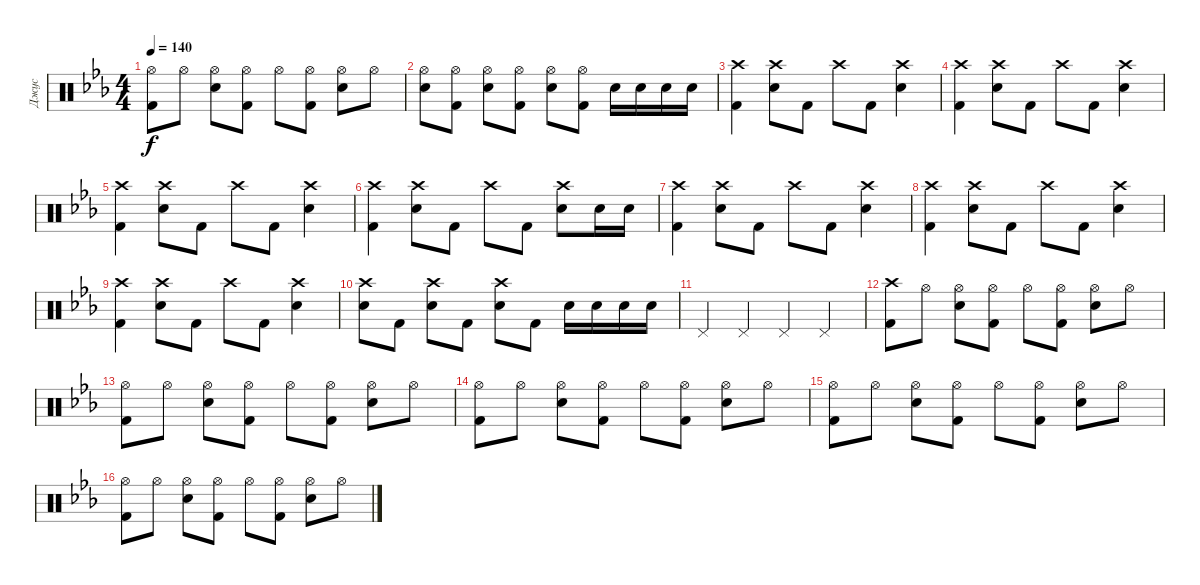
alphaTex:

\track ("Джус" "Джус") {instrument percussion}
\staff {score}
\articulation defaults
\ts (4 4)
\tempo 140
\clef neutral
\ks eb
("Hi-Hat (open)" "Kick (hit) 2").8{dy f} "Hi-Hat (open)".8 ("Hi-Hat (open)" "Electric Snare (hit)").8 ("Hi-Hat (open)" "Kick (hit) 2").8 "Hi-Hat (open)".8 ("Hi-Hat (open)" "Kick (hit) 2").8 ("Hi-Hat (open)" "Electric Snare (hit)").8 "Hi-Hat (open)".8 |
("Hi-Hat (open)" "Electric Snare (hit)").8 ("Hi-Hat (open)" "Kick (hit) 2").8 ("Hi-Hat (open)" "Electric Snare (hit)").8 ("Hi-Hat (open)" "Kick (hit) 2").8 ("Hi-Hat (open)" "Electric Snare (hit)").8 ("Hi-Hat (open)" "Kick (hit) 2").8 "Electric Snare (hit)".16 "Electric Snare (hit)".16 "Electric Snare (hit)".16 "Electric Snare (hit)".16 |
("Crash high (hit)" "Kick (hit) 2").4 ("Crash high (hit)" "Electric Snare (hit)").8 "Kick (hit) 2".8 "Crash high (hit)".8 "Kick (hit) 2".8 ("Crash high (hit)" "Electric Snare (hit)").4 |
("Crash high (hit)" "Kick (hit) 2").4 ("Crash high (hit)" "Electric Snare (hit)").8 "Kick (hit) 2".8 "Crash high (hit)".8 "Kick (hit) 2".8 ("Crash high (hit)" "Electric Snare (hit)").4 |
("Crash high (hit)" "Kick (hit) 2").4 ("Crash high (hit)" "Electric Snare (hit)").8 "Kick (hit) 2".8 "Crash high (hit)".8 "Kick (hit) 2".8 ("Crash high (hit)" "Electric Snare (hit)").4 |
("Crash high (hit)" "Kick (hit) 2").4 ("Crash high (hit)" "Electric Snare (hit)").8 "Kick (hit) 2".8 "Crash high (hit)".8 "Kick (hit) 2".8 ("Crash high (hit)" "Electric Snare (hit)").8 "Electric Snare (hit)".16 "Electric Snare (hit)".16 |
("Crash high (hit)" "Kick (hit) 2").4 ("Crash high (hit)" "Electric Snare (hit)").8 "Kick (hit) 2".8 "Crash high (hit)".8 "Kick (hit) 2".8 ("Crash high (hit)" "Electric Snare (hit)").4 |
("Crash high (hit)" "Kick (hit) 2").4 ("Crash high (hit)" "Electric Snare (hit)").8 "Kick (hit) 2".8 "Crash high (hit)".8 "Kick (hit) 2".8 ("Crash high (hit)" "Electric Snare (hit)").4 |
("Crash high (hit)" "Kick (hit) 2").4 ("Crash high (hit)" "Electric Snare (hit)").8 "Kick (hit) 2".8 "Crash high (hit)".8 "Kick (hit) 2".8 ("Crash high (hit)" "Electric Snare (hit)").4 |
("Crash high (hit)" "Electric Snare (hit)").8 "Kick (hit) 2".8 ("Crash high (hit)" "Electric Snare (hit)").8 "Kick (hit) 2".8 ("Crash high (hit)" "Electric Snare (hit)").8 "Kick (hit) 2".8 "Electric Snare (hit)".16 "Electric Snare (hit)".16 "Electric Snare (hit)".16 "Electric Snare (hit)".16 |
"Pedal Hi-Hat (hit)".4{volume 8} "Pedal Hi-Hat (hit)".4 "Pedal Hi-Hat (hit)".4 "Pedal Hi-Hat (hit)".4 |
("Crash high (hit)" "Kick (hit) 2").8{volume 16} "Hi-Hat (open)".8 ("Hi-Hat (open)" "Electric Snare (hit)").8 ("Hi-Hat (open)" "Kick (hit) 2").8 "Hi-Hat (open)".8 ("Hi-Hat (open)" "Kick (hit) 2").8 ("Hi-Hat (open)" "Electric Snare (hit)").8 "Hi-Hat (open)".8 |
("Hi-Hat (open)" "Kick (hit) 2").8 "Hi-Hat (open)".8 ("Hi-Hat (open)" "Electric Snare (hit)").8 ("Hi-Hat (open)" "Kick (hit) 2").8 "Hi-Hat (open)".8 ("Hi-Hat (open)" "Kick (hit) 2").8 ("Hi-Hat (open)" "Electric Snare (hit)").8 "Hi-Hat (open)".8 |
("Hi-Hat (open)" "Kick (hit) 2").8 "Hi-Hat (open)".8 ("Hi-Hat (open)" "Electric Snare (hit)").8 ("Hi-Hat (open)" "Kick (hit) 2").8 "Hi-Hat (open)".8 ("Hi-Hat (open)" "Kick (hit) 2").8 ("Hi-Hat (open)" "Electric Snare (hit)").8 "Hi-Hat (open)".8 |
("Hi-Hat (open)" "Kick (hit) 2").8 "Hi-Hat (open)".8 ("Hi-Hat (open)" "Electric Snare (hit)").8 ("Hi-Hat (open)" "Kick (hit) 2").8 "Hi-Hat (open)".8 ("Hi-Hat (open)" "Kick (hit) 2").8 ("Hi-Hat (open)" "Electric Snare (hit)").8 "Hi-Hat (open)".8 |
("Hi-Hat (open)" "Kick (hit) 2").8 "Hi-Hat (open)".8 ("Hi-Hat (open)" "Electric Snare (hit)").8 ("Hi-Hat (open)" "Kick (hit) 2").8 "Hi-Hat (open)".8 ("Hi-Hat (open)" "Kick (hit) 2").8 ("Hi-Hat (open)" "Electric Snare (hit)").8 "Hi-Hat (open)".8
